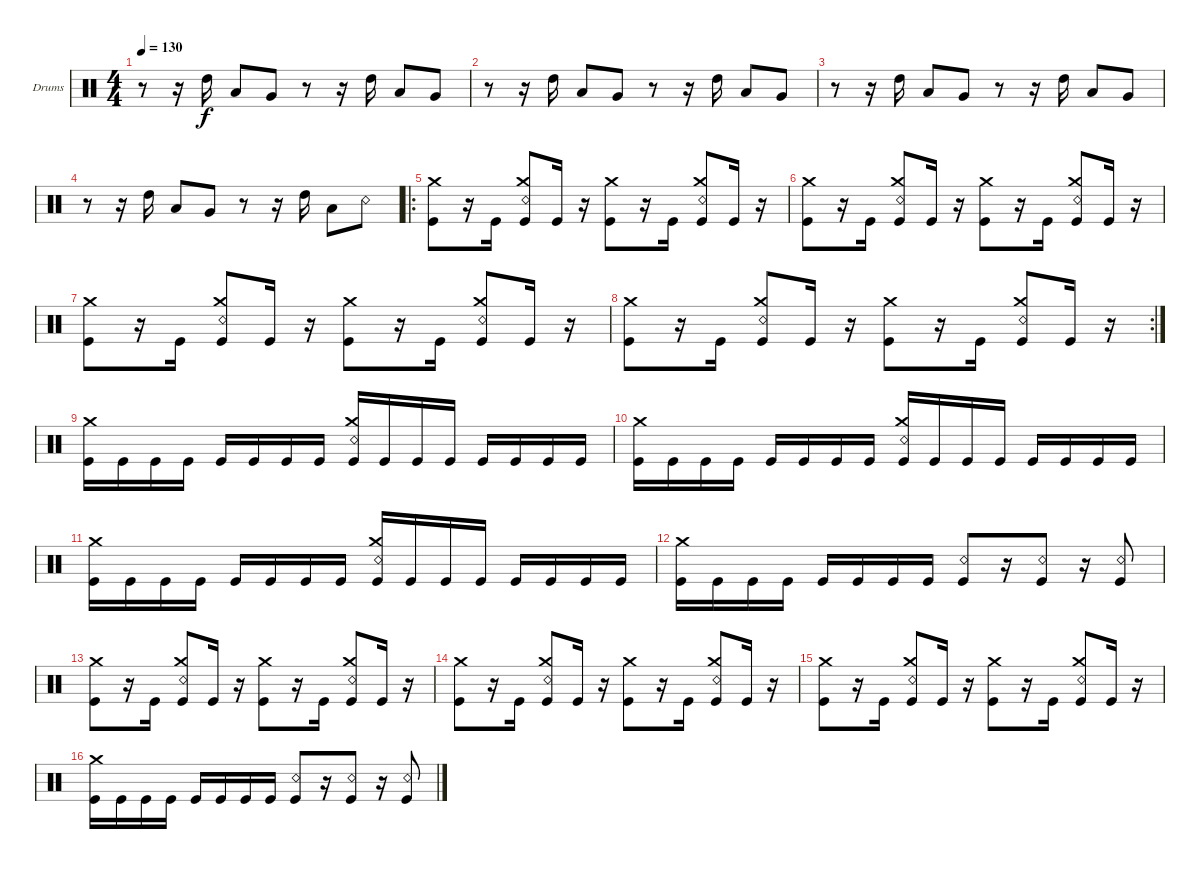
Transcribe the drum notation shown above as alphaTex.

\defaultSystemsLayout 4
\bracketExtendMode groupsimilarinstruments
\firstSystemTrackNameOrientation horizontal
\otherSystemsTrackNameOrientation horizontal
\track ("Drumkit" "Drums") {instrument percussion}
\staff {score}
\articulation defaults
\ts (4 4)
\tempo 130
\clef neutral
\ks c
r.8{dy f} r.16 "High Tom (hit)".16 "Low Tom (hit)".8 "Very Low Tom (hit)".8 r.8 r.16 "High Tom (hit)".16 "Low Tom (hit)".8 "Very Low Tom (hit)".8 |
r.8 r.16 "High Tom (hit)".16 "Low Tom (hit)".8 "Very Low Tom (hit)".8 r.8 r.16 "High Tom (hit)".16 "Low Tom (hit)".8 "Very Low Tom (hit)".8 |
r.8 r.16 "High Tom (hit)".16 "Low Tom (hit)".8 "Very Low Tom (hit)".8 r.8 r.16 "High Tom (hit)".16 "Low Tom (hit)".8 "Very Low Tom (hit)".8 |
r.8 r.16 "High Tom (hit)".16 "Low Tom (hit)".8 "Very Low Tom (hit)".8 r.8 r.16 "High Tom (hit)".16 "Low Tom (hit)".8 "Snare (rim shot)".8 |
\ro
("Crash medium (hit)" "Kick (hit)").8 r.16 "Kick (hit)".16 ("Crash medium (hit)" "Snare (rim shot)" "Kick (hit)").8 "Kick (hit)".16 r.16 ("Crash medium (hit)" "Kick (hit)").8 r.16 "Kick (hit)".16 ("Crash medium (hit)" "Snare (rim shot)" "Kick (hit)").8 "Kick (hit)".16 r.16 |
("Crash medium (hit)" "Kick (hit)").8 r.16 "Kick (hit)".16 ("Crash medium (hit)" "Snare (rim shot)" "Kick (hit)").8 "Kick (hit)".16 r.16 ("Crash medium (hit)" "Kick (hit)").8 r.16 "Kick (hit)".16 ("Crash medium (hit)" "Snare (rim shot)" "Kick (hit)").8 "Kick (hit)".16 r.16 |
("Crash medium (hit)" "Kick (hit)").8 r.16 "Kick (hit)".16 ("Crash medium (hit)" "Snare (rim shot)" "Kick (hit)").8 "Kick (hit)".16 r.16 ("Crash medium (hit)" "Kick (hit)").8 r.16 "Kick (hit)".16 ("Crash medium (hit)" "Snare (rim shot)" "Kick (hit)").8 "Kick (hit)".16 r.16 |
\rc 2
("Crash medium (hit)" "Kick (hit)").8 r.16 "Kick (hit)".16 ("Crash medium (hit)" "Snare (rim shot)" "Kick (hit)").8 "Kick (hit)".16 r.16 ("Crash medium (hit)" "Kick (hit)").8 r.16 "Kick (hit)".16 ("Crash medium (hit)" "Snare (rim shot)" "Kick (hit)").8 "Kick (hit)".16 r.16 |
("Kick (hit)" "Crash medium (hit)").16 "Kick (hit)".16 "Kick (hit)".16 "Kick (hit)".16 "Kick (hit)".16 "Kick (hit)".16 "Kick (hit)".16 "Kick (hit)".16 ("Kick (hit)" "Crash medium (hit)" "Snare (rim shot)").16 "Kick (hit)".16 "Kick (hit)".16 "Kick (hit)".16 "Kick (hit)".16 "Kick (hit)".16 "Kick (hit)".16 "Kick (hit)".16 |
("Kick (hit)" "Crash medium (hit)").16 "Kick (hit)".16 "Kick (hit)".16 "Kick (hit)".16 "Kick (hit)".16 "Kick (hit)".16 "Kick (hit)".16 "Kick (hit)".16 ("Kick (hit)" "Crash medium (hit)" "Snare (rim shot)").16 "Kick (hit)".16 "Kick (hit)".16 "Kick (hit)".16 "Kick (hit)".16 "Kick (hit)".16 "Kick (hit)".16 "Kick (hit)".16 |
("Kick (hit)" "Crash medium (hit)").16 "Kick (hit)".16 "Kick (hit)".16 "Kick (hit)".16 "Kick (hit)".16 "Kick (hit)".16 "Kick (hit)".16 "Kick (hit)".16 ("Kick (hit)" "Crash medium (hit)" "Snare (rim shot)").16 "Kick (hit)".16 "Kick (hit)".16 "Kick (hit)".16 "Kick (hit)".16 "Kick (hit)".16 "Kick (hit)".16 "Kick (hit)".16 |
("Kick (hit)" "Crash medium (hit)").16 "Kick (hit)".16 "Kick (hit)".16 "Kick (hit)".16 "Kick (hit)".16 "Kick (hit)".16 "Kick (hit)".16 "Kick (hit)".16 ("Snare (rim shot)" "Kick (hit)").8 r.16 ("Snare (rim shot)" "Kick (hit)").8 r.16 ("Snare (rim shot)" "Kick (hit)").8 |
("Crash medium (hit)" "Kick (hit)").8 r.16 "Kick (hit)".16 ("Crash medium (hit)" "Snare (rim shot)" "Kick (hit)").8 "Kick (hit)".16 r.16 ("Crash medium (hit)" "Kick (hit)").8 r.16 "Kick (hit)".16 ("Crash medium (hit)" "Snare (rim shot)" "Kick (hit)").8 "Kick (hit)".16 r.16 |
("Crash medium (hit)" "Kick (hit)").8 r.16 "Kick (hit)".16 ("Crash medium (hit)" "Snare (rim shot)" "Kick (hit)").8 "Kick (hit)".16 r.16 ("Crash medium (hit)" "Kick (hit)").8 r.16 "Kick (hit)".16 ("Crash medium (hit)" "Snare (rim shot)" "Kick (hit)").8 "Kick (hit)".16 r.16 |
("Crash medium (hit)" "Kick (hit)").8 r.16 "Kick (hit)".16 ("Crash medium (hit)" "Snare (rim shot)" "Kick (hit)").8 "Kick (hit)".16 r.16 ("Crash medium (hit)" "Kick (hit)").8 r.16 "Kick (hit)".16 ("Crash medium (hit)" "Snare (rim shot)" "Kick (hit)").8 "Kick (hit)".16 r.16 |
("Kick (hit)" "Crash medium (hit)").16 "Kick (hit)".16 "Kick (hit)".16 "Kick (hit)".16 "Kick (hit)".16 "Kick (hit)".16 "Kick (hit)".16 "Kick (hit)".16 ("Snare (rim shot)" "Kick (hit)").8 r.16 ("Snare (rim shot)" "Kick (hit)").8 r.16 ("Snare (rim shot)" "Kick (hit)").8
